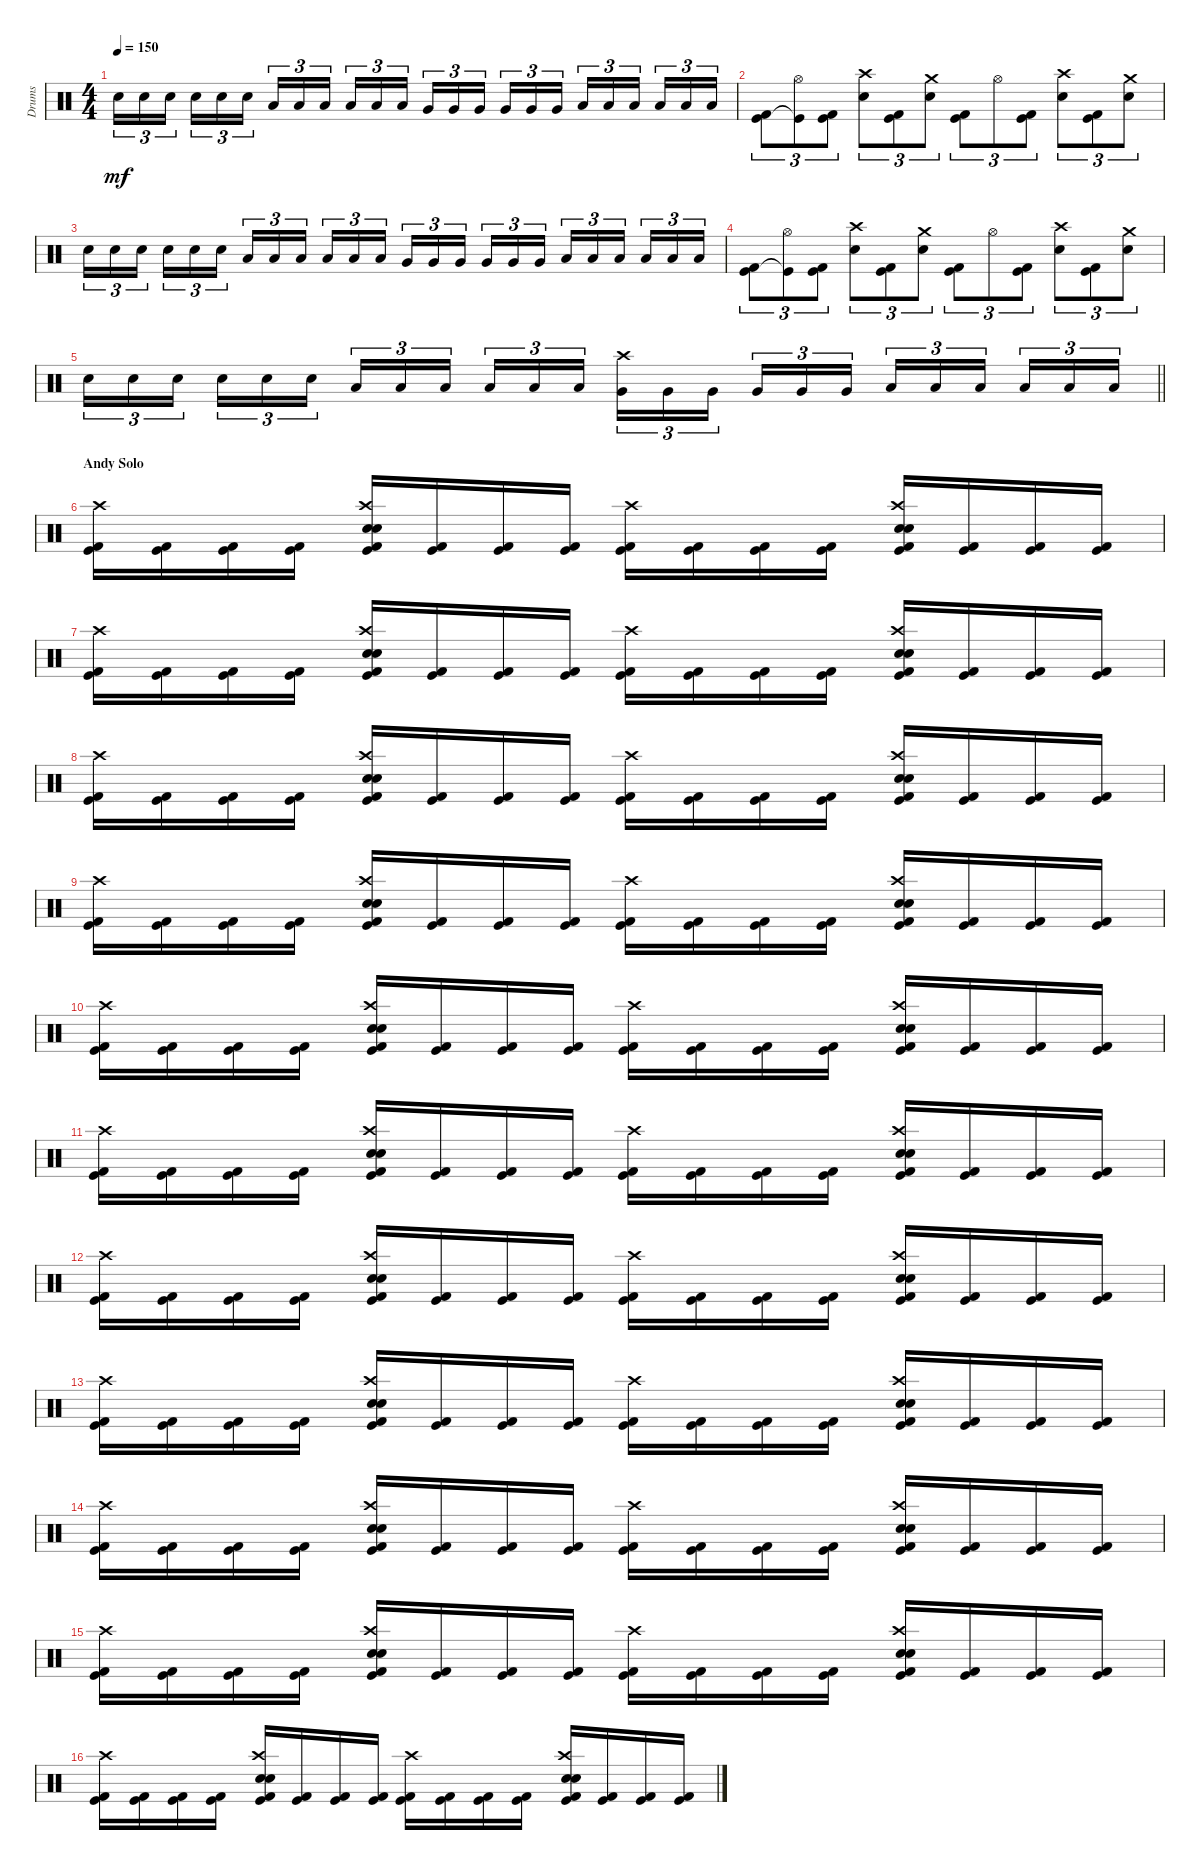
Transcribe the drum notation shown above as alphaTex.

\track ("Drums" "Drums") {instrument percussion}
\staff {score}
\articulation defaults
\ts (4 4)
\tempo 150
\clef neutral
\ks c "Electric Snare (hit)".16{tu (3 2) dy mf} "Electric Snare (hit)".16{tu (3 2)} "Electric Snare (hit)".16{tu (3 2) beam splitsecondary} "Electric Snare (hit)".16{tu (3 2)} "Electric Snare (hit)".16{tu (3 2)} "Electric Snare (hit)".16{tu (3 2)} "Low Tom (hit)".16{tu (3 2)} "Low Tom (hit)".16{tu (3 2)} "Low Tom (hit)".16{tu (3 2) beam splitsecondary} "Low Tom (hit)".16{tu (3 2)} "Low Tom (hit)".16{tu (3 2)} "Low Tom (hit)".16{tu (3 2)} "Very Low Tom (hit)".16{tu (3 2)} "Very Low Tom (hit)".16{tu (3 2)} "Very Low Tom (hit)".16{tu (3 2) beam splitsecondary} "Very Low Tom (hit)".16{tu (3 2)} "Very Low Tom (hit)".16{tu (3 2)} "Very Low Tom (hit)".16{tu (3 2)} "Low Floor Tom (hit)".16{tu (3 2)} "Low Floor Tom (hit)".16{tu (3 2)} "Low Floor Tom (hit)".16{tu (3 2) beam splitsecondary} "Low Floor Tom (hit)".16{tu (3 2)} "Low Floor Tom (hit)".16{tu (3 2)} "Low Floor Tom (hit)".16{tu (3 2)}
|
("Kick (hit) 2" "Kick (hit)").8{tu (3 2)} ("Hi-Hat (open)" "Kick (hit)"{t}).8{tu (3 2)} ("Kick (hit) 2" "Kick (hit)").8{tu (3 2)} ("Crash high (hit)" "Electric Snare (hit)").8{tu (3 2)} ("Kick (hit)" "Kick (hit) 2").8{tu (3 2)} ("Crash medium (hit)" "Electric Snare (hit)").8{tu (3 2)} ("Kick (hit) 2" "Kick (hit)").8{tu (3 2)} "Hi-Hat (open)".8{tu (3 2)} ("Kick (hit) 2" "Kick (hit)").8{tu (3 2)} ("Crash high (hit)" "Electric Snare (hit)").8{tu (3 2)} ("Kick (hit)" "Kick (hit) 2").8{tu (3 2)} ("Crash medium (hit)" "Electric Snare (hit)").8{tu (3 2)} |
"Electric Snare (hit)".16{tu (3 2)} "Electric Snare (hit)".16{tu (3 2)} "Electric Snare (hit)".16{tu (3 2) beam splitsecondary} "Electric Snare (hit)".16{tu (3 2)} "Electric Snare (hit)".16{tu (3 2)} "Electric Snare (hit)".16{tu (3 2)} "Low Tom (hit)".16{tu (3 2)} "Low Tom (hit)".16{tu (3 2)} "Low Tom (hit)".16{tu (3 2) beam splitsecondary} "Low Tom (hit)".16{tu (3 2)} "Low Tom (hit)".16{tu (3 2)} "Low Tom (hit)".16{tu (3 2)} "Very Low Tom (hit)".16{tu (3 2)} "Very Low Tom (hit)".16{tu (3 2)} "Very Low Tom (hit)".16{tu (3 2) beam splitsecondary} "Very Low Tom (hit)".16{tu (3 2)} "Very Low Tom (hit)".16{tu (3 2)} "Very Low Tom (hit)".16{tu (3 2)} "Low Floor Tom (hit)".16{tu (3 2)} "Low Floor Tom (hit)".16{tu (3 2)} "Low Floor Tom (hit)".16{tu (3 2) beam splitsecondary} "Low Floor Tom (hit)".16{tu (3 2)} "Low Floor Tom (hit)".16{tu (3 2)} "Low Floor Tom (hit)".16{tu (3 2)} |
("Kick (hit) 2" "Kick (hit)").8{tu (3 2)} ("Hi-Hat (open)" "Kick (hit)"{t}).8{tu (3 2)} ("Kick (hit) 2" "Kick (hit)").8{tu (3 2)} ("Crash high (hit)" "Electric Snare (hit)").8{tu (3 2)} ("Kick (hit)" "Kick (hit) 2").8{tu (3 2)} ("Crash medium (hit)" "Electric Snare (hit)").8{tu (3 2)} ("Kick (hit) 2" "Kick (hit)").8{tu (3 2)} "Hi-Hat (open)".8{tu (3 2)} ("Kick (hit) 2" "Kick (hit)").8{tu (3 2)} ("Crash high (hit)" "Electric Snare (hit)").8{tu (3 2)} ("Kick (hit)" "Kick (hit) 2").8{tu (3 2)} ("Crash medium (hit)" "Electric Snare (hit)").8{tu (3 2)} |
\barLineRight lightlight "Electric Snare (hit)".16{tu (3 2)} "Electric Snare (hit)".16{tu (3 2)} "Electric Snare (hit)".16{tu (3 2) beam splitsecondary} "Electric Snare (hit)".16{tu (3 2)} "Electric Snare (hit)".16{tu (3 2)} "Electric Snare (hit)".16{tu (3 2)} "Low Tom (hit)".16{tu (3 2)} "Low Tom (hit)".16{tu (3 2)} "Low Tom (hit)".16{tu (3 2) beam splitsecondary} "Low Tom (hit)".16{tu (3 2)} "Low Tom (hit)".16{tu (3 2)} "Low Tom (hit)".16{tu (3 2)}
("Crash high (hit)" "Very Low Tom (hit)").16{tu (3 2)} "Very Low Tom (hit)".16{tu (3 2)} "Very Low Tom (hit)".16{tu (3 2) beam splitsecondary} "Very Low Tom (hit)".16{tu (3 2)} "Very Low Tom (hit)".16{tu (3 2)} "Very Low Tom (hit)".16{tu (3 2)} "Low Floor Tom (hit)".16{tu (3 2)} "Low Floor Tom (hit)".16{tu (3 2)} "Low Floor Tom (hit)".16{tu (3 2) beam splitsecondary} "Low Floor Tom (hit)".16{tu (3 2)} "Low Floor Tom (hit)".16{tu (3 2)} "Low Floor Tom (hit)".16{tu (3 2)} |
\section ("" "Andy Solo")
("Crash high (hit)" "Kick (hit)" "Kick (hit) 2").16 ("Kick (hit)" "Kick (hit) 2").16 ("Kick (hit)" "Kick (hit) 2").16 ("Kick (hit)" "Kick (hit) 2").16 ("Crash high (hit)" "Kick (hit)" "Kick (hit) 2" "Electric Snare (hit)" "Snare (hit) 2").16 ("Kick (hit)" "Kick (hit) 2").16 ("Kick (hit)" "Kick (hit) 2").16 ("Kick (hit)" "Kick (hit) 2").16 ("Crash high (hit)" "Kick (hit)" "Kick (hit) 2").16 ("Kick (hit)" "Kick (hit) 2").16 ("Kick (hit)" "Kick (hit) 2").16 ("Kick (hit)" "Kick (hit) 2").16 ("Crash high (hit)" "Kick (hit)" "Kick (hit) 2" "Electric Snare (hit)" "Snare (hit) 2").16 ("Kick (hit)" "Kick (hit) 2").16 ("Kick (hit)" "Kick (hit) 2").16 ("Kick (hit)" "Kick (hit) 2").16 |
("Crash high (hit)" "Kick (hit)" "Kick (hit) 2").16 ("Kick (hit)" "Kick (hit) 2").16 ("Kick (hit)" "Kick (hit) 2").16 ("Kick (hit)" "Kick (hit) 2").16 ("Crash high (hit)" "Kick (hit)" "Kick (hit) 2" "Electric Snare (hit)" "Snare (hit) 2").16 ("Kick (hit)" "Kick (hit) 2").16 ("Kick (hit)" "Kick (hit) 2").16 ("Kick (hit)" "Kick (hit) 2").16 ("Crash high (hit)" "Kick (hit)" "Kick (hit) 2").16 ("Kick (hit)" "Kick (hit) 2").16 ("Kick (hit)" "Kick (hit) 2").16 ("Kick (hit)" "Kick (hit) 2").16 ("Crash high (hit)" "Kick (hit)" "Kick (hit) 2" "Electric Snare (hit)" "Snare (hit) 2").16 ("Kick (hit)" "Kick (hit) 2").16 ("Kick (hit)" "Kick (hit) 2").16 ("Kick (hit)" "Kick (hit) 2").16 |
("Crash high (hit)" "Kick (hit)" "Kick (hit) 2").16 ("Kick (hit)" "Kick (hit) 2").16 ("Kick (hit)" "Kick (hit) 2").16 ("Kick (hit)" "Kick (hit) 2").16 ("Crash high (hit)" "Kick (hit)" "Kick (hit) 2" "Electric Snare (hit)" "Snare (hit) 2").16 ("Kick (hit)" "Kick (hit) 2").16 ("Kick (hit)" "Kick (hit) 2").16 ("Kick (hit)" "Kick (hit) 2").16 ("Crash high (hit)" "Kick (hit)" "Kick (hit) 2").16 ("Kick (hit)" "Kick (hit) 2").16 ("Kick (hit)" "Kick (hit) 2").16 ("Kick (hit)" "Kick (hit) 2").16 ("Crash high (hit)" "Kick (hit)" "Kick (hit) 2" "Electric Snare (hit)" "Snare (hit) 2").16 ("Kick (hit)" "Kick (hit) 2").16 ("Kick (hit)" "Kick (hit) 2").16 ("Kick (hit)" "Kick (hit) 2").16 |
("Crash high (hit)" "Kick (hit)" "Kick (hit) 2").16 ("Kick (hit)" "Kick (hit) 2").16 ("Kick (hit)" "Kick (hit) 2").16 ("Kick (hit)" "Kick (hit) 2").16 ("Crash high (hit)" "Kick (hit)" "Kick (hit) 2" "Electric Snare (hit)" "Snare (hit) 2").16 ("Kick (hit)" "Kick (hit) 2").16 ("Kick (hit)" "Kick (hit) 2").16 ("Kick (hit)" "Kick (hit) 2").16 ("Crash high (hit)" "Kick (hit)" "Kick (hit) 2").16 ("Kick (hit)" "Kick (hit) 2").16 ("Kick (hit)" "Kick (hit) 2").16 ("Kick (hit)" "Kick (hit) 2").16 ("Crash high (hit)" "Kick (hit)" "Kick (hit) 2" "Electric Snare (hit)" "Snare (hit) 2").16 ("Kick (hit)" "Kick (hit) 2").16 ("Kick (hit)" "Kick (hit) 2").16 ("Kick (hit)" "Kick (hit) 2").16 |
("Crash high (hit)" "Kick (hit)" "Kick (hit) 2").16 ("Kick (hit)" "Kick (hit) 2").16 ("Kick (hit)" "Kick (hit) 2").16 ("Kick (hit)" "Kick (hit) 2").16 ("Crash high (hit)" "Kick (hit)" "Kick (hit) 2" "Electric Snare (hit)" "Snare (hit) 2").16 ("Kick (hit)" "Kick (hit) 2").16 ("Kick (hit)" "Kick (hit) 2").16 ("Kick (hit)" "Kick (hit) 2").16 ("Crash high (hit)" "Kick (hit)" "Kick (hit) 2").16 ("Kick (hit)" "Kick (hit) 2").16 ("Kick (hit)" "Kick (hit) 2").16 ("Kick (hit)" "Kick (hit) 2").16 ("Crash high (hit)" "Kick (hit)" "Kick (hit) 2" "Electric Snare (hit)" "Snare (hit) 2").16 ("Kick (hit)" "Kick (hit) 2").16 ("Kick (hit)" "Kick (hit) 2").16 ("Kick (hit)" "Kick (hit) 2").16 |
("Crash high (hit)" "Kick (hit)" "Kick (hit) 2").16 ("Kick (hit)" "Kick (hit) 2").16 ("Kick (hit)" "Kick (hit) 2").16 ("Kick (hit)" "Kick (hit) 2").16 ("Crash high (hit)" "Kick (hit)" "Kick (hit) 2" "Electric Snare (hit)" "Snare (hit) 2").16 ("Kick (hit)" "Kick (hit) 2").16 ("Kick (hit)" "Kick (hit) 2").16 ("Kick (hit)" "Kick (hit) 2").16 ("Crash high (hit)" "Kick (hit)" "Kick (hit) 2").16 ("Kick (hit)" "Kick (hit) 2").16 ("Kick (hit)" "Kick (hit) 2").16 ("Kick (hit)" "Kick (hit) 2").16 ("Crash high (hit)" "Kick (hit)" "Kick (hit) 2" "Electric Snare (hit)" "Snare (hit) 2").16 ("Kick (hit)" "Kick (hit) 2").16 ("Kick (hit)" "Kick (hit) 2").16 ("Kick (hit)" "Kick (hit) 2").16 |
("Crash high (hit)" "Kick (hit)" "Kick (hit) 2").16 ("Kick (hit)" "Kick (hit) 2").16 ("Kick (hit)" "Kick (hit) 2").16 ("Kick (hit)" "Kick (hit) 2").16 ("Crash high (hit)" "Kick (hit)" "Kick (hit) 2" "Electric Snare (hit)" "Snare (hit) 2").16 ("Kick (hit)" "Kick (hit) 2").16 ("Kick (hit)" "Kick (hit) 2").16 ("Kick (hit)" "Kick (hit) 2").16 ("Crash high (hit)" "Kick (hit)" "Kick (hit) 2").16 ("Kick (hit)" "Kick (hit) 2").16 ("Kick (hit)" "Kick (hit) 2").16 ("Kick (hit)" "Kick (hit) 2").16 ("Crash high (hit)" "Kick (hit)" "Kick (hit) 2" "Electric Snare (hit)" "Snare (hit) 2").16 ("Kick (hit)" "Kick (hit) 2").16 ("Kick (hit)" "Kick (hit) 2").16 ("Kick (hit)" "Kick (hit) 2").16 |
("Crash high (hit)" "Kick (hit)" "Kick (hit) 2").16 ("Kick (hit)" "Kick (hit) 2").16 ("Kick (hit)" "Kick (hit) 2").16 ("Kick (hit)" "Kick (hit) 2").16 ("Crash high (hit)" "Kick (hit)" "Kick (hit) 2" "Electric Snare (hit)" "Snare (hit) 2").16 ("Kick (hit)" "Kick (hit) 2").16 ("Kick (hit)" "Kick (hit) 2").16 ("Kick (hit)" "Kick (hit) 2").16 ("Crash high (hit)" "Kick (hit)" "Kick (hit) 2").16 ("Kick (hit)" "Kick (hit) 2").16 ("Kick (hit)" "Kick (hit) 2").16 ("Kick (hit)" "Kick (hit) 2").16 ("Crash high (hit)" "Kick (hit)" "Kick (hit) 2" "Electric Snare (hit)" "Snare (hit) 2").16 ("Kick (hit)" "Kick (hit) 2").16 ("Kick (hit)" "Kick (hit) 2").16 ("Kick (hit)" "Kick (hit) 2").16 |
("Crash high (hit)" "Kick (hit)" "Kick (hit) 2").16 ("Kick (hit)" "Kick (hit) 2").16 ("Kick (hit)" "Kick (hit) 2").16 ("Kick (hit)" "Kick (hit) 2").16 ("Crash high (hit)" "Kick (hit)" "Kick (hit) 2" "Electric Snare (hit)" "Snare (hit) 2").16 ("Kick (hit)" "Kick (hit) 2").16 ("Kick (hit)" "Kick (hit) 2").16 ("Kick (hit)" "Kick (hit) 2").16 ("Crash high (hit)" "Kick (hit)" "Kick (hit) 2").16 ("Kick (hit)" "Kick (hit) 2").16 ("Kick (hit)" "Kick (hit) 2").16 ("Kick (hit)" "Kick (hit) 2").16 ("Crash high (hit)" "Kick (hit)" "Kick (hit) 2" "Electric Snare (hit)" "Snare (hit) 2").16 ("Kick (hit)" "Kick (hit) 2").16 ("Kick (hit)" "Kick (hit) 2").16 ("Kick (hit)" "Kick (hit) 2").16 |
("Crash high (hit)" "Kick (hit)" "Kick (hit) 2").16 ("Kick (hit)" "Kick (hit) 2").16 ("Kick (hit)" "Kick (hit) 2").16 ("Kick (hit)" "Kick (hit) 2").16 ("Crash high (hit)" "Kick (hit)" "Kick (hit) 2" "Electric Snare (hit)" "Snare (hit) 2").16 ("Kick (hit)" "Kick (hit) 2").16 ("Kick (hit)" "Kick (hit) 2").16 ("Kick (hit)" "Kick (hit) 2").16 ("Crash high (hit)" "Kick (hit)" "Kick (hit) 2").16 ("Kick (hit)" "Kick (hit) 2").16 ("Kick (hit)" "Kick (hit) 2").16 ("Kick (hit)" "Kick (hit) 2").16 ("Crash high (hit)" "Kick (hit)" "Kick (hit) 2" "Electric Snare (hit)" "Snare (hit) 2").16 ("Kick (hit)" "Kick (hit) 2").16 ("Kick (hit)" "Kick (hit) 2").16 ("Kick (hit)" "Kick (hit) 2").16 |
("Crash high (hit)" "Kick (hit)" "Kick (hit) 2").16 ("Kick (hit)" "Kick (hit) 2").16 ("Kick (hit)" "Kick (hit) 2").16 ("Kick (hit)" "Kick (hit) 2").16 ("Crash high (hit)" "Kick (hit)" "Kick (hit) 2" "Electric Snare (hit)" "Snare (hit) 2").16 ("Kick (hit)" "Kick (hit) 2").16 ("Kick (hit)" "Kick (hit) 2").16 ("Kick (hit)" "Kick (hit) 2").16 ("Crash high (hit)" "Kick (hit)" "Kick (hit) 2").16 ("Kick (hit)" "Kick (hit) 2").16 ("Kick (hit)" "Kick (hit) 2").16 ("Kick (hit)" "Kick (hit) 2").16 ("Crash high (hit)" "Kick (hit)" "Kick (hit) 2" "Electric Snare (hit)" "Snare (hit) 2").16 ("Kick (hit)" "Kick (hit) 2").16 ("Kick (hit)" "Kick (hit) 2").16 ("Kick (hit)" "Kick (hit) 2").16
